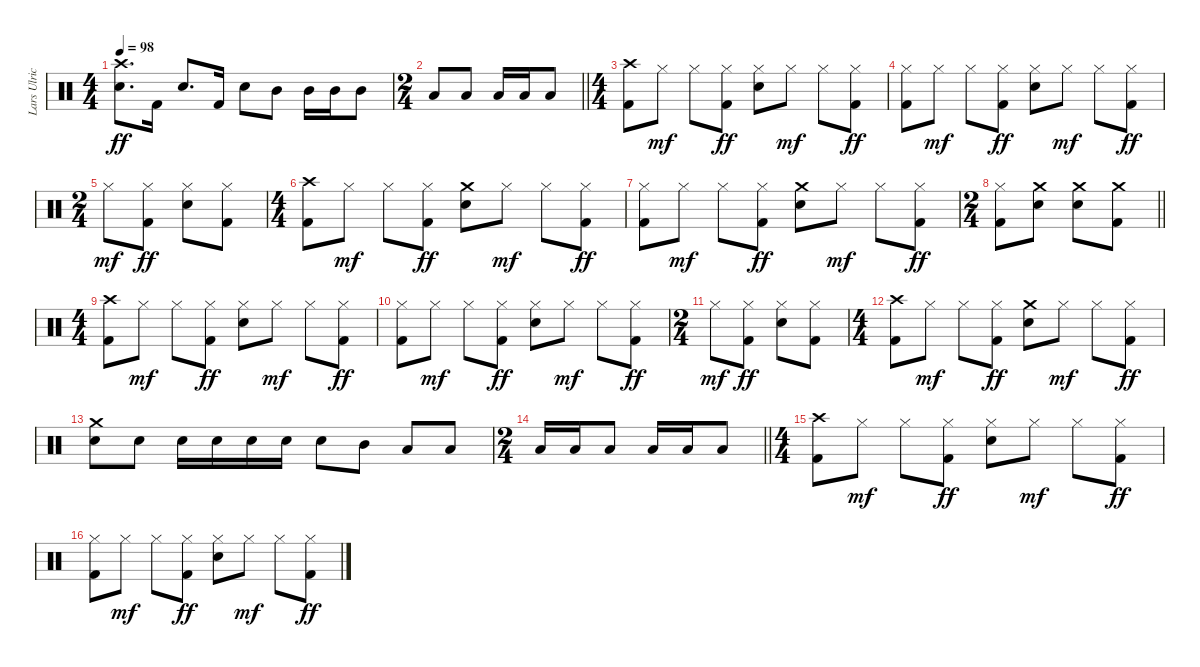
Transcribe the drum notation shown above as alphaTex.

\track ("Lars Ulrich" "Lars Ulric") {instrument percussion}
\staff {score}
\articulation defaults
\ts (4 4)
\tempo 98
\clef neutral
\ks c
("Crash high (hit)" "Snare (hit) 2").8{d dy ff} "Kick (hit) 2".16 "Snare (hit) 2".8{d} "Kick (hit) 2".16 "Snare (hit) 2".8 "Mid Tom (hit)".8 "Mid Tom (hit)".16 "Mid Tom (hit)".16 "Mid Tom (hit)".8 |
\ts (2 4)
\barLineRight lightlight "Low Tom (hit)".8 "Low Tom (hit)".8 "Low Floor Tom (hit)".16 "Low Floor Tom (hit)".16 "Low Floor Tom (hit)".8
|
\ts (4 4)
("Crash high (hit)" "Kick (hit) 2").8 "Hi-Hat (closed)".8{dy mf} "Hi-Hat (closed)".8 ("Hi-Hat (closed)" "Kick (hit) 2").8{dy ff} ("Hi-Hat (closed)" "Snare (hit) 2").8 "Hi-Hat (closed)".8{dy mf} "Hi-Hat (closed)".8 ("Hi-Hat (closed)" "Kick (hit) 2").8{dy ff} |
("Hi-Hat (closed)" "Kick (hit) 2").8 "Hi-Hat (closed)".8{dy mf} "Hi-Hat (closed)".8 ("Hi-Hat (closed)" "Kick (hit) 2").8{dy ff} ("Hi-Hat (closed)" "Snare (hit) 2").8 "Hi-Hat (closed)".8{dy mf} "Hi-Hat (closed)".8 ("Hi-Hat (closed)" "Kick (hit) 2").8{dy ff} |
\ts (2 4)
"Hi-Hat (closed)".8{dy mf} ("Hi-Hat (closed)" "Kick (hit) 2").8{dy ff} ("Hi-Hat (closed)" "Snare (hit) 2").8 ("Hi-Hat (closed)" "Kick (hit) 2").8 |
\ts (4 4)
("Crash high (hit)" "Kick (hit) 2").8 "Hi-Hat (closed)".8{dy mf} "Hi-Hat (closed)".8 ("Hi-Hat (closed)" "Kick (hit) 2").8{dy ff} ("Crash medium (hit)" "Snare (hit) 2").8 "Hi-Hat (closed)".8{dy mf} "Hi-Hat (closed)".8 ("Hi-Hat (closed)" "Kick (hit) 2").8{dy ff} |
("Hi-Hat (closed)" "Kick (hit) 2").8 "Hi-Hat (closed)".8{dy mf} "Hi-Hat (closed)".8 ("Hi-Hat (closed)" "Kick (hit) 2").8{dy ff} ("Crash medium (hit)" "Snare (hit) 2").8 "Hi-Hat (closed)".8{dy mf} "Hi-Hat (closed)".8 ("Hi-Hat (closed)" "Kick (hit) 2").8{dy ff} |
\ts (2 4)
\barLineRight lightlight
("Hi-Hat (closed)" "Kick (hit) 2").8 ("Crash medium (hit)" "Snare (hit) 2").8 ("Crash medium (hit)" "Snare (hit) 2").8 ("Crash medium (hit)" "Kick (hit) 2").8 |
\ts (4 4)
("Crash high (hit)" "Kick (hit) 2").8 "Hi-Hat (closed)".8{dy mf} "Hi-Hat (closed)".8 ("Hi-Hat (closed)" "Kick (hit) 2").8{dy ff} ("Hi-Hat (closed)" "Snare (hit) 2").8 "Hi-Hat (closed)".8{dy mf} "Hi-Hat (closed)".8 ("Hi-Hat (closed)" "Kick (hit) 2").8{dy ff} |
("Hi-Hat (closed)" "Kick (hit) 2").8 "Hi-Hat (closed)".8{dy mf} "Hi-Hat (closed)".8 ("Hi-Hat (closed)" "Kick (hit) 2").8{dy ff} ("Hi-Hat (closed)" "Snare (hit) 2").8 "Hi-Hat (closed)".8{dy mf} "Hi-Hat (closed)".8 ("Hi-Hat (closed)" "Kick (hit) 2").8{dy ff} |
\ts (2 4)
"Hi-Hat (closed)".8{dy mf} ("Hi-Hat (closed)" "Kick (hit) 2").8{dy ff} ("Hi-Hat (closed)" "Snare (hit) 2").8 ("Hi-Hat (closed)" "Kick (hit) 2").8 |
\ts (4 4)
("Crash high (hit)" "Kick (hit) 2").8 "Hi-Hat (closed)".8{dy mf} "Hi-Hat (closed)".8 ("Hi-Hat (closed)" "Kick (hit) 2").8{dy ff} ("Crash medium (hit)" "Snare (hit) 2").8 "Hi-Hat (closed)".8{dy mf} "Hi-Hat (closed)".8 ("Hi-Hat (closed)" "Kick (hit) 2").8{dy ff} |
("Crash medium (hit)" "Snare (hit) 2").8 "Snare (hit) 2".8 "Snare (hit) 2".16 "Snare (hit) 2".16 "Snare (hit) 2".16 "Snare (hit) 2".16 "Snare (hit) 2".8 "Mid Tom (hit)".8 "Low Tom (hit)".8 "Low Floor Tom (hit)".8 |
\ts (2 4)
\barLineRight lightlight "Low Tom (hit)".16 "Low Tom (hit)".16 "Low Tom (hit)".8 "Low Floor Tom (hit)".16 "Low Floor Tom (hit)".16 "Low Floor Tom (hit)".8
|
\ts (4 4)
("Crash high (hit)" "Kick (hit) 2").8 "Hi-Hat (closed)".8{dy mf} "Hi-Hat (closed)".8 ("Hi-Hat (closed)" "Kick (hit) 2").8{dy ff} ("Hi-Hat (closed)" "Snare (hit) 2").8 "Hi-Hat (closed)".8{dy mf} "Hi-Hat (closed)".8 ("Hi-Hat (closed)" "Kick (hit) 2").8{dy ff} |
("Hi-Hat (closed)" "Kick (hit) 2").8 "Hi-Hat (closed)".8{dy mf} "Hi-Hat (closed)".8 ("Hi-Hat (closed)" "Kick (hit) 2").8{dy ff} ("Hi-Hat (closed)" "Snare (hit) 2").8 "Hi-Hat (closed)".8{dy mf} "Hi-Hat (closed)".8 ("Hi-Hat (closed)" "Kick (hit) 2").8{dy ff}
